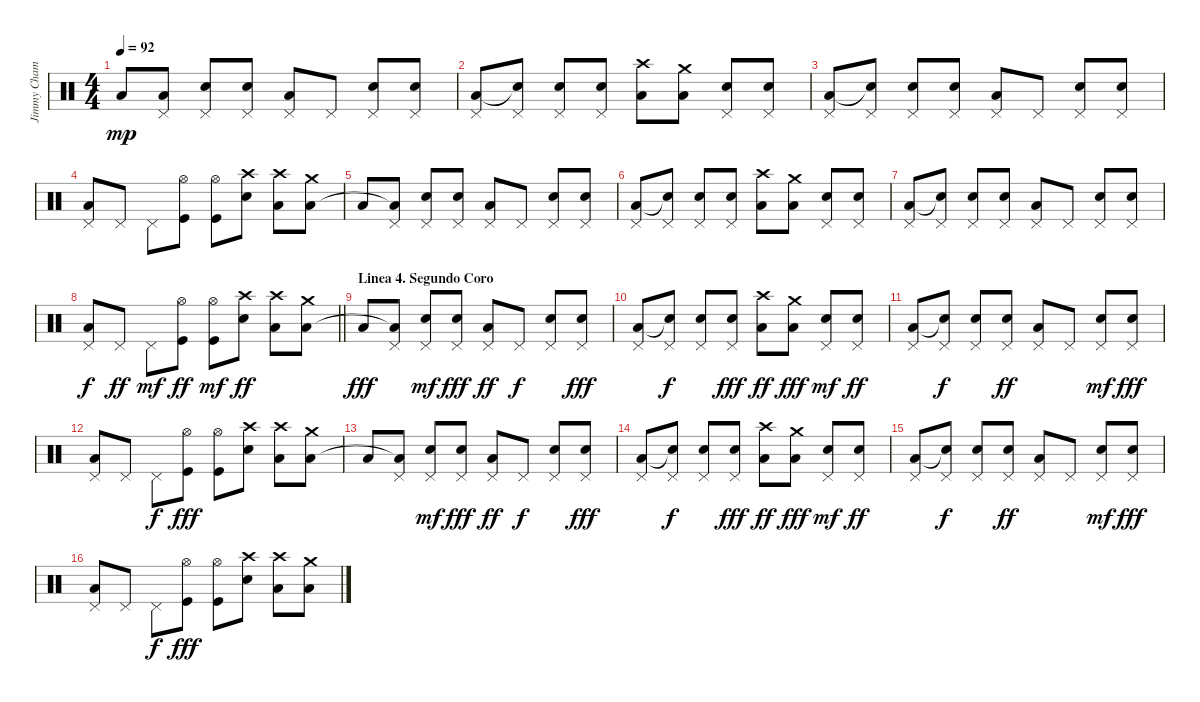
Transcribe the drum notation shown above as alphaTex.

\track ("Jimmy Chamberlin" "Jimmy Cham") {instrument percussion}
\staff {score}
\articulation defaults
\ts (4 4)
\tempo 92
\clef neutral
\ks c "Low Floor Tom (hit)".8{dy mp}
("Pedal Hi-Hat (hit)" "Low Floor Tom (hit)"{t}).8 ("Pedal Hi-Hat (hit)" "Snare (hit) 2").8 ("Pedal Hi-Hat (hit)" "Snare (hit) 2").8 ("Pedal Hi-Hat (hit)" "Low Tom (hit)").8 "Pedal Hi-Hat (hit)".8 ("Pedal Hi-Hat (hit)" "Snare (hit) 2").8 ("Pedal Hi-Hat (hit)" "Snare (hit) 2").8 |
("Pedal Hi-Hat (hit)" "Low Tom (hit)").8 ("Pedal Hi-Hat (hit)" "Snare (hit)"{t}).8 ("Pedal Hi-Hat (hit)" "Snare (hit) 2").8 ("Pedal Hi-Hat (hit)" "Snare (hit) 2").8 ("Crash high (hit)" "Low Tom (hit)").8 ("Crash medium (hit)" "Low Floor Tom (hit)").8 ("Pedal Hi-Hat (hit)" "Snare (hit) 2").8 ("Pedal Hi-Hat (hit)" "Snare (hit) 2").8 |
("Pedal Hi-Hat (hit)" "Low Tom (hit)").8 ("Pedal Hi-Hat (hit)" "Snare (hit)"{t}).8 ("Pedal Hi-Hat (hit)" "Snare (hit) 2").8 ("Pedal Hi-Hat (hit)" "Snare (hit) 2").8 ("Pedal Hi-Hat (hit)" "Low Floor Tom (hit)").8 "Pedal Hi-Hat (hit)".8 ("Pedal Hi-Hat (hit)" "Snare (hit) 2").8 ("Pedal Hi-Hat (hit)" "Snare (hit) 2").8 |
("Pedal Hi-Hat (hit)" "Low Tom (hit)").8 "Pedal Hi-Hat (hit)".8 "Pedal Hi-Hat (hit)".8 ("Hi-Hat (open)" "Kick (hit)").8 ("Hi-Hat (open)" "Kick (hit)").8 ("Crash high (hit)" "Snare (hit) 2").8 ("Crash high (hit)" "Low Tom (hit)").8 ("Crash medium (hit)" "Low Floor Tom (hit)").8 |
"Low Floor Tom (hit)".8 ("Pedal Hi-Hat (hit)" "Low Floor Tom (hit)"{t}).8 ("Pedal Hi-Hat (hit)" "Snare (hit) 2").8 ("Pedal Hi-Hat (hit)" "Snare (hit) 2").8 ("Pedal Hi-Hat (hit)" "Low Tom (hit)").8 "Pedal Hi-Hat (hit)".8 ("Pedal Hi-Hat (hit)" "Snare (hit) 2").8 ("Pedal Hi-Hat (hit)" "Snare (hit) 2").8 |
("Pedal Hi-Hat (hit)" "Low Tom (hit)").8 ("Pedal Hi-Hat (hit)" "Snare (hit)"{t}).8 ("Pedal Hi-Hat (hit)" "Snare (hit) 2").8 ("Pedal Hi-Hat (hit)" "Snare (hit) 2").8 ("Crash high (hit)" "Low Tom (hit)").8 ("Crash medium (hit)" "Low Floor Tom (hit)").8 ("Pedal Hi-Hat (hit)" "Snare (hit) 2").8 ("Pedal Hi-Hat (hit)" "Snare (hit) 2").8 |
("Pedal Hi-Hat (hit)" "Low Tom (hit)").8 ("Pedal Hi-Hat (hit)" "Snare (hit)"{t}).8 ("Pedal Hi-Hat (hit)" "Snare (hit) 2").8 ("Pedal Hi-Hat (hit)" "Snare (hit) 2").8 ("Pedal Hi-Hat (hit)" "Low Floor Tom (hit)").8 "Pedal Hi-Hat (hit)".8 ("Pedal Hi-Hat (hit)" "Snare (hit) 2").8 ("Pedal Hi-Hat (hit)" "Snare (hit) 2").8 |
\barLineRight lightlight
("Pedal Hi-Hat (hit)" "Low Tom (hit)").8{dy f} "Pedal Hi-Hat (hit)".8{dy ff} "Pedal Hi-Hat (hit)".8{dy mf} ("Hi-Hat (open)" "Kick (hit)").8{dy ff} ("Hi-Hat (open)" "Kick (hit)").8{dy mf} ("Crash high (hit)" "Snare (hit) 2").8{dy ff} ("Crash high (hit)" "Low Tom (hit)").8 ("Crash medium (hit)" "Low Floor Tom (hit)").8 |
\section ("" "Linea 4. Segundo Coro")
"Low Floor Tom (hit)".8{dy fff} ("Pedal Hi-Hat (hit)" "Low Floor Tom (hit)"{t}).8 ("Pedal Hi-Hat (hit)" "Snare (hit) 2").8{dy mf} ("Pedal Hi-Hat (hit)" "Snare (hit) 2").8{dy fff} ("Pedal Hi-Hat (hit)" "Low Tom (hit)").8{dy ff} "Pedal Hi-Hat (hit)".8{dy f} ("Pedal Hi-Hat (hit)" "Snare (hit) 2").8 ("Pedal Hi-Hat (hit)" "Snare (hit) 2").8{dy fff} |
("Pedal Hi-Hat (hit)" "Low Tom (hit)").8 ("Pedal Hi-Hat (hit)" "Snare (hit)"{t}).8{dy f} ("Pedal Hi-Hat (hit)" "Snare (hit) 2").8 ("Pedal Hi-Hat (hit)" "Snare (hit) 2").8{dy fff} ("Crash high (hit)" "Low Tom (hit)").8{dy ff} ("Crash medium (hit)" "Low Floor Tom (hit)").8{dy fff} ("Pedal Hi-Hat (hit)" "Snare (hit) 2").8{dy mf} ("Pedal Hi-Hat (hit)" "Snare (hit) 2").8{dy ff} |
("Pedal Hi-Hat (hit)" "Low Tom (hit)").8 ("Pedal Hi-Hat (hit)" "Snare (hit)"{t}).8{dy f} ("Pedal Hi-Hat (hit)" "Snare (hit) 2").8 ("Pedal Hi-Hat (hit)" "Snare (hit) 2").8{dy ff} ("Pedal Hi-Hat (hit)" "Low Floor Tom (hit)").8 "Pedal Hi-Hat (hit)".8 ("Pedal Hi-Hat (hit)" "Snare (hit) 2").8{dy mf} ("Pedal Hi-Hat (hit)" "Snare (hit) 2").8{dy fff} |
("Pedal Hi-Hat (hit)" "Low Tom (hit)").8 "Pedal Hi-Hat (hit)".8 "Pedal Hi-Hat (hit)".8{dy f} ("Hi-Hat (open)" "Kick (hit)").8{dy fff} ("Hi-Hat (open)" "Kick (hit)").8 ("Crash high (hit)" "Snare (hit) 2").8 ("Crash high (hit)" "Low Tom (hit)").8 ("Crash medium (hit)" "Low Floor Tom (hit)").8 |
"Low Floor Tom (hit)".8 ("Pedal Hi-Hat (hit)" "Low Floor Tom (hit)"{t}).8 ("Pedal Hi-Hat (hit)" "Snare (hit) 2").8{dy mf} ("Pedal Hi-Hat (hit)" "Snare (hit) 2").8{dy fff} ("Pedal Hi-Hat (hit)" "Low Tom (hit)").8{dy ff} "Pedal Hi-Hat (hit)".8{dy f} ("Pedal Hi-Hat (hit)" "Snare (hit) 2").8 ("Pedal Hi-Hat (hit)" "Snare (hit) 2").8{dy fff} |
("Pedal Hi-Hat (hit)" "Low Tom (hit)").8 ("Pedal Hi-Hat (hit)" "Snare (hit)"{t}).8{dy f} ("Pedal Hi-Hat (hit)" "Snare (hit) 2").8 ("Pedal Hi-Hat (hit)" "Snare (hit) 2").8{dy fff} ("Crash high (hit)" "Low Tom (hit)").8{dy ff} ("Crash medium (hit)" "Low Floor Tom (hit)").8{dy fff} ("Pedal Hi-Hat (hit)" "Snare (hit) 2").8{dy mf} ("Pedal Hi-Hat (hit)" "Snare (hit) 2").8{dy ff} |
("Pedal Hi-Hat (hit)" "Low Tom (hit)").8 ("Pedal Hi-Hat (hit)" "Snare (hit)"{t}).8{dy f} ("Pedal Hi-Hat (hit)" "Snare (hit) 2").8 ("Pedal Hi-Hat (hit)" "Snare (hit) 2").8{dy ff} ("Pedal Hi-Hat (hit)" "Low Floor Tom (hit)").8 "Pedal Hi-Hat (hit)".8 ("Pedal Hi-Hat (hit)" "Snare (hit) 2").8{dy mf} ("Pedal Hi-Hat (hit)" "Snare (hit) 2").8{dy fff} |
("Pedal Hi-Hat (hit)" "Low Tom (hit)").8 "Pedal Hi-Hat (hit)".8 "Pedal Hi-Hat (hit)".8{dy f} ("Hi-Hat (open)" "Kick (hit)").8{dy fff} ("Hi-Hat (open)" "Kick (hit)").8 ("Crash high (hit)" "Snare (hit) 2").8 ("Crash high (hit)" "Low Tom (hit)").8 ("Crash medium (hit)" "Low Floor Tom (hit)").8
